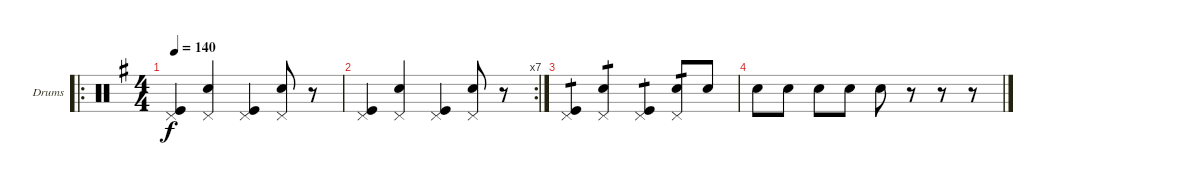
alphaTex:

\bracketExtendMode groupsimilarinstruments
\firstSystemTrackNameOrientation horizontal
\otherSystemsTrackNameOrientation horizontal
\track ("Drumkit" "Drums") {instrument percussion}
\staff {score}
\articulation defaults
\ro
\ts (4 4)
\tempo 140
\clef neutral
\scale
1.04288
\ks g
("Kick (hit)" "Pedal Hi-Hat (hit)").4{dy f} ("Snare (hit) 2" "Pedal Hi-Hat (hit)").4 ("Kick (hit)" "Pedal Hi-Hat (hit)").4 ("Snare (hit) 2" "Pedal Hi-Hat (hit)").8 r.8 |
\rc 7
\scale
0.957125 ("Kick (hit)" "Pedal Hi-Hat (hit)").4 ("Snare (hit) 2" "Pedal Hi-Hat (hit)").4 ("Kick (hit)" "Pedal Hi-Hat (hit)").4 ("Snare (hit) 2" "Pedal Hi-Hat (hit)").8 r.8 |
\scale
1.04288 ("Kick (hit)" "Pedal Hi-Hat (hit)").4{tp 1} ("Snare (hit) 2" "Pedal Hi-Hat (hit)").4{tp 1} ("Kick (hit)" "Pedal Hi-Hat (hit)").4{tp 1} ("Snare (hit) 2" "Pedal Hi-Hat (hit)").8{tp 1} "Snare (hit) 2".8 |
\scale
0.957125 "Snare (hit) 2".8 "Snare (hit) 2".8 "Snare (hit) 2".8 "Snare (hit) 2".8 "Snare (hit) 2".8 r.8 r.8 r.8
